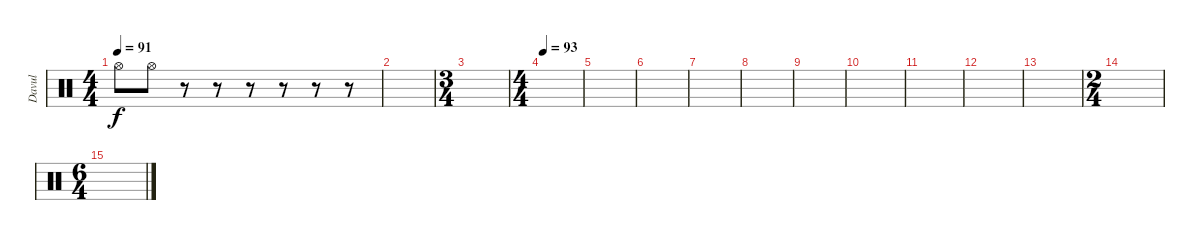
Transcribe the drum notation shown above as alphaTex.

\track ("Davul" "Davul") {instrument percussion}
\staff {score}
\articulation defaults
\ts (4 4)
\tempo 91
\clef neutral
\ks c "Hi-Hat (open)".8{dy f} "Hi-Hat (open)".8
r.8 r.8 r.8 r.8 r.8 r.8 |
|
\ts (3 4)
|
\ts (4 4)
\tempo 93
|
|
|
|
|
|
|
|
|
|
\ts (2 4)
|
\ts (6 4)
